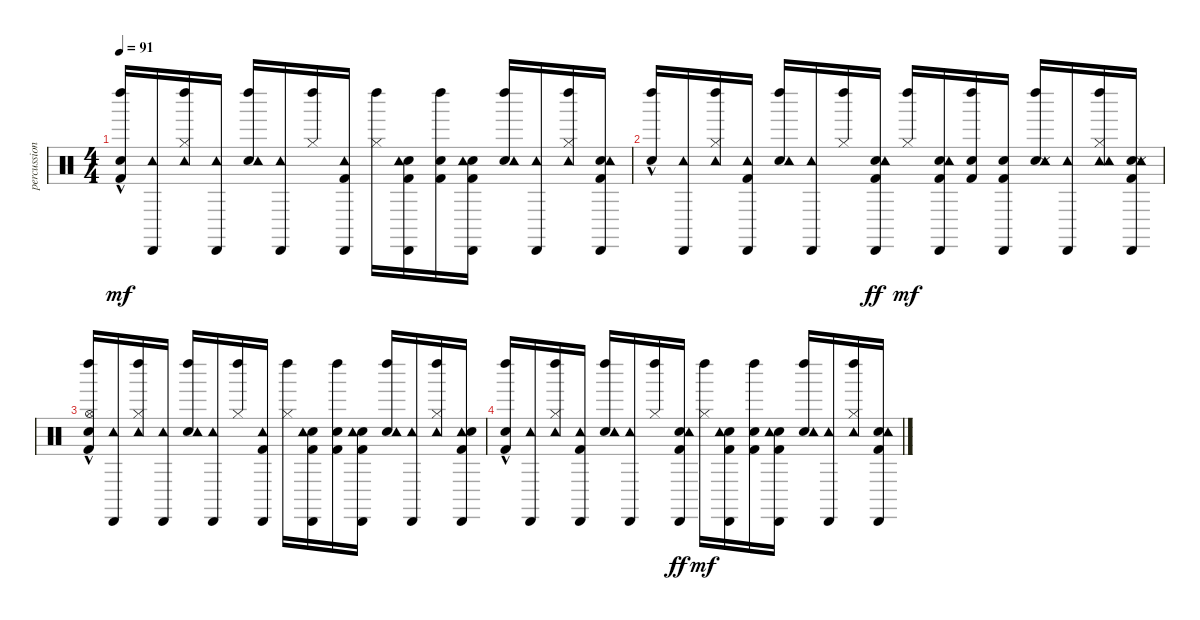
\track ("percussion" "percussion") {instrument percussion}
\staff {score}
\articulation defaults
\ts (4 4)
\tempo 91
\clef neutral
\ks c
("Kick (hit) 2" "Electric Snare (hit)"{hac} "Left Maraca (hit)").16{dy mf} ("Cabasa (hit)" "Tambourine (hit)").16{volume 13} ("Hi-Hat (closed)" "Left Maraca (hit)" "Tambourine (hit)").16{volume 13} ("Cabasa (hit)" "Tambourine (hit)").16 ("Electric Snare (hit)" "Left Maraca (hit)" "Tambourine (hit)").16{volume 13} ("Cabasa (hit)" "Tambourine (hit)").16{volume 13} ("Hi-Hat (closed)" "Left Maraca (hit)").16{volume 12} ("Kick (hit) 2" "Cabasa (hit)" "Tambourine (hit)").16{volume 12} ("Hi-Hat (closed)" "Left Maraca (hit)").16{volume 12} ("Kick (hit) 2" "Electric Snare (hit)" "Cabasa (hit)" "Tambourine (hit)").16{volume 11} ("Electric Snare (hit)" "Left Maraca (hit)" "Kick (hit) 2").16{volume 11} ("Kick (hit) 2" "Electric Snare (hit)" "Cabasa (hit)" "Tambourine (hit)").16{volume 11} ("Electric Snare (hit)" "Left Maraca (hit)" "Tambourine (hit)").16{volume 10} ("Cabasa (hit)" "Tambourine (hit)").16{volume 10} ("Tambourine (hit)" "Hi-Hat (closed)" "Left Maraca (hit)").16{volume 10} ("Electric Snare (hit)" "Kick (hit) 2" "Tambourine (hit)" "Cabasa (hit)").16{volume 9} |
("Left Maraca (hit)" "Electric Snare (hit)"{hac}).16{volume 9} ("Cabasa (hit)" "Tambourine (hit)").16{volume 9} ("Hi-Hat (closed)" "Left Maraca (hit)" "Tambourine (hit)").16{volume 7} ("Cabasa (hit)" "Tambourine (hit)" "Kick (hit) 2").16{volume 7} ("Electric Snare (hit)" "Left Maraca (hit)" "Tambourine (hit)").16{volume 6} ("Cabasa (hit)" "Tambourine (hit)").16{volume 6} ("Hi-Hat (closed)" "Left Maraca (hit)").16{volume 6} ("Electric Snare (hit)" "Cabasa (hit)" "Tambourine (hit)" "Kick (hit) 2").16{dy ff volume 5} ("Hi-Hat (closed)" "Left Maraca (hit)").16{dy mf volume 4} ("Electric Snare (hit)" "Cabasa (hit)" "Tambourine (hit)" "Kick (hit) 2").16{volume 4} ("Electric Snare (hit)" "Left Maraca (hit)" "Kick (hit) 2").16{volume 4} ("Kick (hit) 2" "Electric Snare (hit)" "Cabasa (hit)").16{volume 4} ("Electric Snare (hit)" "Metronome (hit)" "Left Maraca (hit)" "Tambourine (hit)").16{volume 3} ("Cabasa (hit)" "Tambourine (hit)").16 ("Left Maraca (hit)" "Tambourine (hit)" "Hi-Hat (closed)" "Tambourine (hit)").16{volume 3} ("Electric Snare (hit)" "Cabasa (hit)" "Tambourine (hit)" "Kick (hit) 2" "Metronome (hit)").16{volume 3} |
("Kick (hit) 2" "Left Maraca (hit)" "Hi-Hat (open)" "Electric Snare (hit)"{hac}).16{volume 2} ("Tambourine (hit)" "Cabasa (hit)").16{volume 2} ("Hi-Hat (closed)" "Tambourine (hit)" "Left Maraca (hit)").16{volume 2} ("Tambourine (hit)" "Cabasa (hit)").16{volume 1} ("Electric Snare (hit)" "Tambourine (hit)" "Left Maraca (hit)").16{volume 1} ("Tambourine (hit)" "Cabasa (hit)").16{volume 1} ("Hi-Hat (closed)" "Left Maraca (hit)").16{volume 0} ("Kick (hit) 2" "Tambourine (hit)" "Cabasa (hit)").16{volume 0} ("Hi-Hat (closed)" "Left Maraca (hit)").16 ("Kick (hit) 2" "Electric Snare (hit)" "Tambourine (hit)" "Cabasa (hit)").16{volume 0} ("Kick (hit) 2" "Electric Snare (hit)" "Left Maraca (hit)").16 ("Kick (hit) 2" "Electric Snare (hit)" "Tambourine (hit)" "Cabasa (hit)").16 ("Electric Snare (hit)" "Tambourine (hit)" "Left Maraca (hit)").16 ("Tambourine (hit)" "Cabasa (hit)").16 ("Left Maraca (hit)" "Tambourine (hit)" "Hi-Hat (closed)").16 ("Cabasa (hit)" "Kick (hit) 2" "Tambourine (hit)" "Electric Snare (hit)").16 |
("Kick (hit) 2" "Electric Snare (hit)"{hac} "Left Maraca (hit)").16 ("Tambourine (hit)" "Cabasa (hit)").16 ("Hi-Hat (closed)" "Tambourine (hit)" "Left Maraca (hit)").16 ("Tambourine (hit)" "Cabasa (hit)" "Kick (hit) 2").16 ("Electric Snare (hit)" "Tambourine (hit)" "Left Maraca (hit)").16 ("Tambourine (hit)" "Cabasa (hit)").16 ("Hi-Hat (closed)" "Left Maraca (hit)").16 ("Electric Snare (hit)" "Tambourine (hit)" "Cabasa (hit)" "Kick (hit) 2").16{dy ff} ("Hi-Hat (closed)" "Left Maraca (hit)").16{dy mf} ("Electric Snare (hit)" "Tambourine (hit)" "Cabasa (hit)" "Kick (hit) 2").16 ("Electric Snare (hit)" "Left Maraca (hit)" "Kick (hit) 2").16 ("Kick (hit) 2" "Electric Snare (hit)" "Tambourine (hit)" "Cabasa (hit)").16 ("Electric Snare (hit)" "Tambourine (hit)" "Left Maraca (hit)").16 ("Tambourine (hit)" "Cabasa (hit)").16 ("Tambourine (hit)" "Hi-Hat (closed)" "Left Maraca (hit)").16 ("Kick (hit) 2" "Electric Snare (hit)" "Tambourine (hit)" "Cabasa (hit)").16
